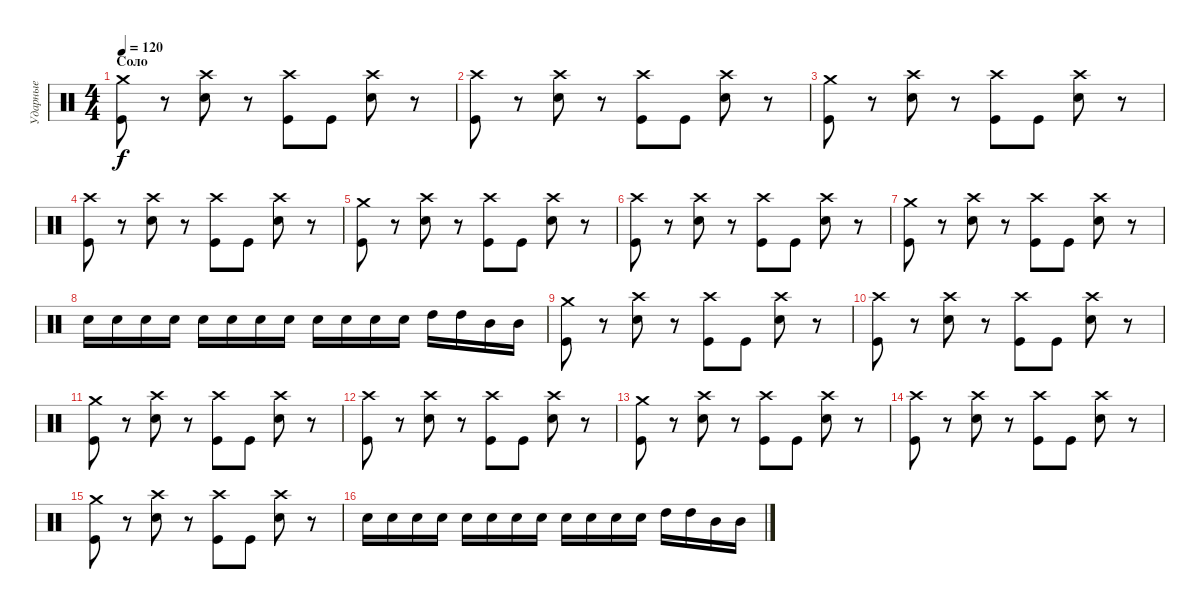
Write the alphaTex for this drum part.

\track ("Ударные" "Ударные") {instrument percussion}
\staff {score}
\articulation defaults
\ts (4 4)
\section ("" "Соло")
\tempo 120
\clef neutral
\ks c
("Crash medium (hit)" "Kick (hit)").8{dy f} r.8 ("Crash high (hit)" "Electric Snare (hit)").8 r.8 ("Crash high (hit)" "Kick (hit)").8 "Kick (hit)".8 ("Crash high (hit)" "Electric Snare (hit)").8 r.8 |
("Crash high (hit)" "Kick (hit)").8 r.8 ("Crash high (hit)" "Electric Snare (hit)").8 r.8 ("Crash high (hit)" "Kick (hit)").8 "Kick (hit)".8 ("Crash high (hit)" "Electric Snare (hit)").8 r.8 |
("Crash medium (hit)" "Kick (hit)").8 r.8 ("Crash high (hit)" "Electric Snare (hit)").8 r.8 ("Crash high (hit)" "Kick (hit)").8 "Kick (hit)".8 ("Crash high (hit)" "Electric Snare (hit)").8 r.8 |
("Crash high (hit)" "Kick (hit)").8 r.8 ("Crash high (hit)" "Electric Snare (hit)").8 r.8 ("Crash high (hit)" "Kick (hit)").8 "Kick (hit)".8 ("Crash high (hit)" "Electric Snare (hit)").8 r.8 |
("Crash medium (hit)" "Kick (hit)").8 r.8 ("Crash high (hit)" "Electric Snare (hit)").8 r.8 ("Crash high (hit)" "Kick (hit)").8 "Kick (hit)".8 ("Crash high (hit)" "Electric Snare (hit)").8 r.8 |
("Crash high (hit)" "Kick (hit)").8 r.8 ("Crash high (hit)" "Electric Snare (hit)").8 r.8 ("Crash high (hit)" "Kick (hit)").8 "Kick (hit)".8 ("Crash high (hit)" "Electric Snare (hit)").8 r.8 |
("Crash medium (hit)" "Kick (hit)").8 r.8 ("Crash high (hit)" "Electric Snare (hit)").8 r.8 ("Crash high (hit)" "Kick (hit)").8 "Kick (hit)".8 ("Crash high (hit)" "Electric Snare (hit)").8 r.8 |
"Electric Snare (hit)".16 "Electric Snare (hit)".16 "Electric Snare (hit)".16 "Electric Snare (hit)".16 "Electric Snare (hit)".16 "Electric Snare (hit)".16 "Electric Snare (hit)".16 "Electric Snare (hit)".16 "Electric Snare (hit)".16 "Electric Snare (hit)".16 "Electric Snare (hit)".16 "Electric Snare (hit)".16 "High Tom (hit)".16 "High Tom (hit)".16 "Mid Tom (hit)".16 "Mid Tom (hit)".16 |
("Crash medium (hit)" "Kick (hit)").8 r.8 ("Crash high (hit)" "Electric Snare (hit)").8 r.8 ("Crash high (hit)" "Kick (hit)").8 "Kick (hit)".8 ("Crash high (hit)" "Electric Snare (hit)").8 r.8 |
("Crash high (hit)" "Kick (hit)").8 r.8 ("Crash high (hit)" "Electric Snare (hit)").8 r.8 ("Crash high (hit)" "Kick (hit)").8 "Kick (hit)".8 ("Crash high (hit)" "Electric Snare (hit)").8 r.8 |
("Crash medium (hit)" "Kick (hit)").8 r.8 ("Crash high (hit)" "Electric Snare (hit)").8 r.8 ("Crash high (hit)" "Kick (hit)").8 "Kick (hit)".8 ("Crash high (hit)" "Electric Snare (hit)").8 r.8 |
("Crash high (hit)" "Kick (hit)").8 r.8 ("Crash high (hit)" "Electric Snare (hit)").8 r.8 ("Crash high (hit)" "Kick (hit)").8 "Kick (hit)".8 ("Crash high (hit)" "Electric Snare (hit)").8 r.8 |
("Crash medium (hit)" "Kick (hit)").8 r.8 ("Crash high (hit)" "Electric Snare (hit)").8 r.8 ("Crash high (hit)" "Kick (hit)").8 "Kick (hit)".8 ("Crash high (hit)" "Electric Snare (hit)").8 r.8 |
("Crash high (hit)" "Kick (hit)").8 r.8 ("Crash high (hit)" "Electric Snare (hit)").8 r.8 ("Crash high (hit)" "Kick (hit)").8 "Kick (hit)".8 ("Crash high (hit)" "Electric Snare (hit)").8 r.8 |
("Crash medium (hit)" "Kick (hit)").8 r.8 ("Crash high (hit)" "Electric Snare (hit)").8 r.8 ("Crash high (hit)" "Kick (hit)").8 "Kick (hit)".8 ("Crash high (hit)" "Electric Snare (hit)").8 r.8 |
"Electric Snare (hit)".16 "Electric Snare (hit)".16 "Electric Snare (hit)".16 "Electric Snare (hit)".16 "Electric Snare (hit)".16 "Electric Snare (hit)".16 "Electric Snare (hit)".16 "Electric Snare (hit)".16 "Electric Snare (hit)".16 "Electric Snare (hit)".16 "Electric Snare (hit)".16 "Electric Snare (hit)".16 "High Tom (hit)".16 "High Tom (hit)".16 "Mid Tom (hit)".16 "Mid Tom (hit)".16
